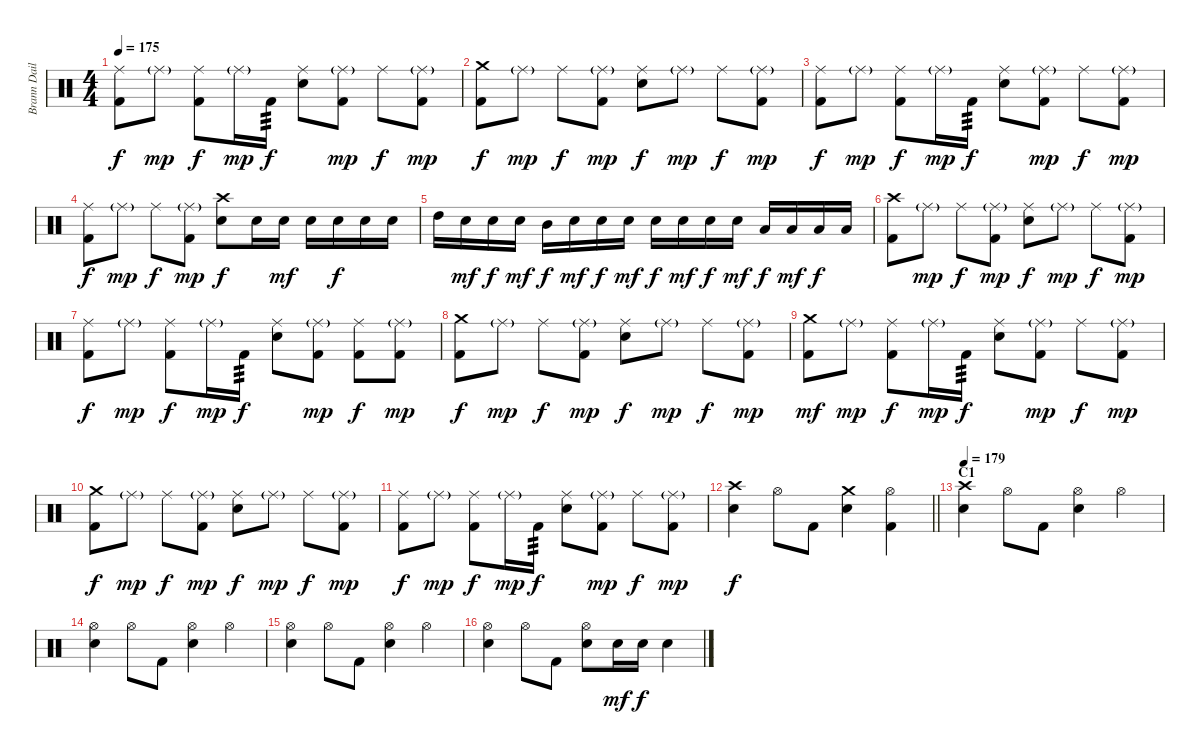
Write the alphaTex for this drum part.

\track ("Brann Dailor" "Brann Dail") {instrument percussion}
\staff {score}
\articulation defaults
\ts (4 4)
\tempo 175
\clef neutral
\ks c
("Ride (middle)" "Kick (hit) 2").8{dy f} "Ride (middle)"{g}.8{dy mp} ("Ride (middle)" "Kick (hit) 2").8{dy f} "Ride (middle)"{g}.16{dy mp} "Kick (hit) 2".16{tp 3 dy f} ("Ride (middle)" "Snare (hit) 2").8 ("Ride (middle)"{g} "Kick (hit) 2").8{dy mp} "Ride (middle)".8{dy f} ("Ride (middle)"{g} "Kick (hit) 2").8{dy mp} |
("Crash medium (hit)" "Kick (hit) 2").8{dy f} "Ride (middle)"{g}.8{dy mp} "Ride (middle)".8{dy f} ("Ride (middle)"{g} "Kick (hit) 2").8{dy mp} ("Ride (middle)" "Snare (hit) 2").8{dy f} "Ride (middle)"{g}.8{dy mp} "Ride (middle)".8{dy f} ("Ride (middle)"{g} "Kick (hit) 2").8{dy mp} |
("Ride (middle)" "Kick (hit) 2").8{dy f} "Ride (middle)"{g}.8{dy mp} ("Ride (middle)" "Kick (hit) 2").8{dy f} "Ride (middle)"{g}.16{dy mp} "Kick (hit) 2".16{tp 3 dy f} ("Ride (middle)" "Snare (hit) 2").8 ("Ride (middle)"{g} "Kick (hit) 2").8{dy mp} "Ride (middle)".8{dy f} ("Ride (middle)"{g} "Kick (hit) 2").8{dy mp} |
("Ride (middle)" "Kick (hit) 2").8{dy f} "Ride (middle)"{g}.8{dy mp} "Ride (middle)".8{dy f} ("Ride (middle)"{g} "Kick (hit) 2").8{dy mp} ("Crash high (hit)" "Snare (hit) 2").8{dy f} "Snare (hit) 2".16 "Snare (hit) 2".16{dy mf} "Snare (hit) 2".16 "Snare (hit) 2".16{dy f} "Snare (hit) 2".16 "Snare (hit) 2".16 |
"High Tom (hit)".16 "Snare (hit) 2".16{dy mf} "Snare (hit) 2".16{dy f} "Snare (hit) 2".16{dy mf} "Mid Tom (hit)".16{dy f} "Snare (hit) 2".16{dy mf} "Snare (hit) 2".16{dy f} "Snare (hit) 2".16{dy mf} "Snare (hit) 2".16{dy f} "Snare (hit) 2".16{dy mf} "Snare (hit) 2".16{dy f} "Snare (hit) 2".16{dy mf} "Low Tom (hit)".16{dy f} "Low Tom (hit)".16{dy mf} "Low Tom (hit)".16{dy f} "Low Tom (hit)".16 |
("Crash high (hit)" "Kick (hit) 2").8 "Ride (middle)"{g}.8{dy mp} "Ride (middle)".8{dy f} ("Ride (middle)"{g} "Kick (hit) 2").8{dy mp} ("Ride (middle)" "Snare (hit) 2").8{dy f} "Ride (middle)"{g}.8{dy mp} "Ride (middle)".8{dy f} ("Ride (middle)"{g} "Kick (hit) 2").8{dy mp} |
("Ride (middle)" "Kick (hit) 2").8{dy f} "Ride (middle)"{g}.8{dy mp} ("Ride (middle)" "Kick (hit) 2").8{dy f} "Ride (middle)"{g}.16{dy mp} "Kick (hit) 2".16{tp 3 dy f} ("Ride (middle)" "Snare (hit) 2").8 ("Ride (middle)"{g} "Kick (hit) 2").8{dy mp} ("Ride (middle)" "Kick (hit) 2").8{dy f} ("Ride (middle)"{g} "Kick (hit) 2").8{dy mp} |
("Crash medium (hit)" "Kick (hit) 2").8{dy f} "Ride (middle)"{g}.8{dy mp} "Ride (middle)".8{dy f} ("Ride (middle)"{g} "Kick (hit) 2").8{dy mp} ("Ride (middle)" "Snare (hit) 2").8{dy f} "Ride (middle)"{g}.8{dy mp} "Ride (middle)".8{dy f} ("Ride (middle)"{g} "Kick (hit) 2").8{dy mp} |
("Crash medium (hit)" "Kick (hit) 2").8{dy mf} "Ride (middle)"{g}.8{dy mp} ("Ride (middle)" "Kick (hit) 2").8{dy f} "Ride (middle)"{g}.16{dy mp} "Kick (hit) 2".16{tp 3 dy f} ("Ride (middle)" "Snare (hit) 2").8 ("Ride (middle)"{g} "Kick (hit) 2").8{dy mp} "Ride (middle)".8{dy f} ("Ride (middle)"{g} "Kick (hit) 2").8{dy mp} |
("Crash medium (hit)" "Kick (hit) 2").8{dy f} "Ride (middle)"{g}.8{dy mp} "Ride (middle)".8{dy f} ("Ride (middle)"{g} "Kick (hit) 2").8{dy mp} ("Ride (middle)" "Snare (hit) 2").8{dy f} "Ride (middle)"{g}.8{dy mp} "Ride (middle)".8{dy f} ("Ride (middle)"{g} "Kick (hit) 2").8{dy mp} |
("Ride (middle)" "Kick (hit) 2").8{dy f} "Ride (middle)"{g}.8{dy mp} ("Ride (middle)" "Kick (hit) 2").8{dy f} "Ride (middle)"{g}.16{dy mp} "Kick (hit) 2".16{tp 3 dy f} ("Ride (middle)" "Snare (hit) 2").8 ("Ride (middle)"{g} "Kick (hit) 2").8{dy mp} "Ride (middle)".8{dy f} ("Ride (middle)"{g} "Kick (hit) 2").8{dy mp} |
\barLineRight lightlight
("Crash high (hit)" "Snare (hit) 2").4{dy f} "Hi-Hat (open)".8 "Kick (hit) 2".8 ("Crash medium (hit)" "Snare (hit) 2").4 ("Hi-Hat (open)" "Kick (hit) 2").4 |
\section ("" "C1")
\tempo 179
("Crash high (hit)" "Snare (hit) 2").4 "Hi-Hat (open)".8 "Kick (hit) 2".8 ("Hi-Hat (open)" "Snare (hit) 2").4 "Hi-Hat (open)".4 |
("Hi-Hat (open)" "Snare (hit) 2").4 "Hi-Hat (open)".8 "Kick (hit) 2".8 ("Hi-Hat (open)" "Snare (hit) 2").4 "Hi-Hat (open)".4 |
("Hi-Hat (open)" "Snare (hit) 2").4 "Hi-Hat (open)".8 "Kick (hit) 2".8 ("Hi-Hat (open)" "Snare (hit) 2").4 "Hi-Hat (open)".4 |
("Hi-Hat (open)" "Snare (hit) 2").4 "Hi-Hat (open)".8 "Kick (hit) 2".8 ("Hi-Hat (open)" "Snare (hit) 2").8 "Snare (hit) 2".16{dy mf} "Snare (hit) 2".16{dy f} "Snare (hit) 2".4
